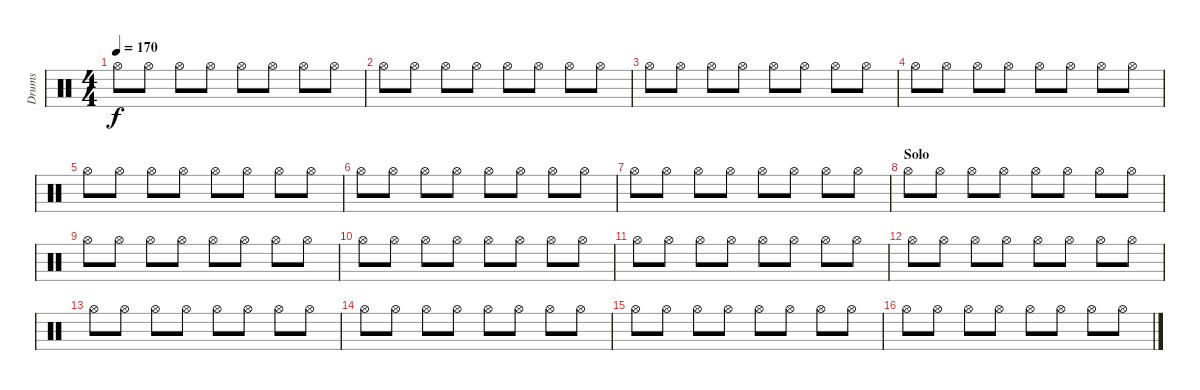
\track ("Drums" "Drums") {instrument percussion}
\staff {score}
\articulation defaults
\ts (4 4)
\tempo 170
\clef neutral
\ks c "Hi-Hat (open)".8{dy f} "Hi-Hat (open)".8 "Hi-Hat (open)".8 "Hi-Hat (open)".8 "Hi-Hat (open)".8 "Hi-Hat (open)".8 "Hi-Hat (open)".8 "Hi-Hat (open)".8
|
"Hi-Hat (open)".8 "Hi-Hat (open)".8 "Hi-Hat (open)".8 "Hi-Hat (open)".8 "Hi-Hat (open)".8 "Hi-Hat (open)".8 "Hi-Hat (open)".8 "Hi-Hat (open)".8 |
"Hi-Hat (open)".8 "Hi-Hat (open)".8 "Hi-Hat (open)".8 "Hi-Hat (open)".8 "Hi-Hat (open)".8 "Hi-Hat (open)".8 "Hi-Hat (open)".8 "Hi-Hat (open)".8 |
"Hi-Hat (open)".8 "Hi-Hat (open)".8 "Hi-Hat (open)".8 "Hi-Hat (open)".8 "Hi-Hat (open)".8 "Hi-Hat (open)".8 "Hi-Hat (open)".8 "Hi-Hat (open)".8 |
"Hi-Hat (open)".8 "Hi-Hat (open)".8 "Hi-Hat (open)".8 "Hi-Hat (open)".8 "Hi-Hat (open)".8 "Hi-Hat (open)".8 "Hi-Hat (open)".8 "Hi-Hat (open)".8 |
"Hi-Hat (open)".8 "Hi-Hat (open)".8 "Hi-Hat (open)".8 "Hi-Hat (open)".8 "Hi-Hat (open)".8 "Hi-Hat (open)".8 "Hi-Hat (open)".8 "Hi-Hat (open)".8 |
"Hi-Hat (open)".8 "Hi-Hat (open)".8 "Hi-Hat (open)".8 "Hi-Hat (open)".8 "Hi-Hat (open)".8 "Hi-Hat (open)".8 "Hi-Hat (open)".8 "Hi-Hat (open)".8 |
\section ("" "Solo")
"Hi-Hat (open)".8 "Hi-Hat (open)".8 "Hi-Hat (open)".8 "Hi-Hat (open)".8 "Hi-Hat (open)".8 "Hi-Hat (open)".8 "Hi-Hat (open)".8 "Hi-Hat (open)".8 |
"Hi-Hat (open)".8 "Hi-Hat (open)".8 "Hi-Hat (open)".8 "Hi-Hat (open)".8 "Hi-Hat (open)".8 "Hi-Hat (open)".8 "Hi-Hat (open)".8 "Hi-Hat (open)".8 |
"Hi-Hat (open)".8 "Hi-Hat (open)".8 "Hi-Hat (open)".8 "Hi-Hat (open)".8 "Hi-Hat (open)".8 "Hi-Hat (open)".8 "Hi-Hat (open)".8 "Hi-Hat (open)".8 |
"Hi-Hat (open)".8 "Hi-Hat (open)".8 "Hi-Hat (open)".8 "Hi-Hat (open)".8 "Hi-Hat (open)".8 "Hi-Hat (open)".8 "Hi-Hat (open)".8 "Hi-Hat (open)".8 |
"Hi-Hat (open)".8 "Hi-Hat (open)".8 "Hi-Hat (open)".8 "Hi-Hat (open)".8 "Hi-Hat (open)".8 "Hi-Hat (open)".8 "Hi-Hat (open)".8 "Hi-Hat (open)".8 |
"Hi-Hat (open)".8 "Hi-Hat (open)".8 "Hi-Hat (open)".8 "Hi-Hat (open)".8 "Hi-Hat (open)".8 "Hi-Hat (open)".8 "Hi-Hat (open)".8 "Hi-Hat (open)".8 |
"Hi-Hat (open)".8 "Hi-Hat (open)".8 "Hi-Hat (open)".8 "Hi-Hat (open)".8 "Hi-Hat (open)".8 "Hi-Hat (open)".8 "Hi-Hat (open)".8 "Hi-Hat (open)".8 |
"Hi-Hat (open)".8 "Hi-Hat (open)".8 "Hi-Hat (open)".8 "Hi-Hat (open)".8 "Hi-Hat (open)".8 "Hi-Hat (open)".8 "Hi-Hat (open)".8 "Hi-Hat (open)".8 |
"Hi-Hat (open)".8 "Hi-Hat (open)".8 "Hi-Hat (open)".8 "Hi-Hat (open)".8 "Hi-Hat (open)".8 "Hi-Hat (open)".8 "Hi-Hat (open)".8 "Hi-Hat (open)".8
